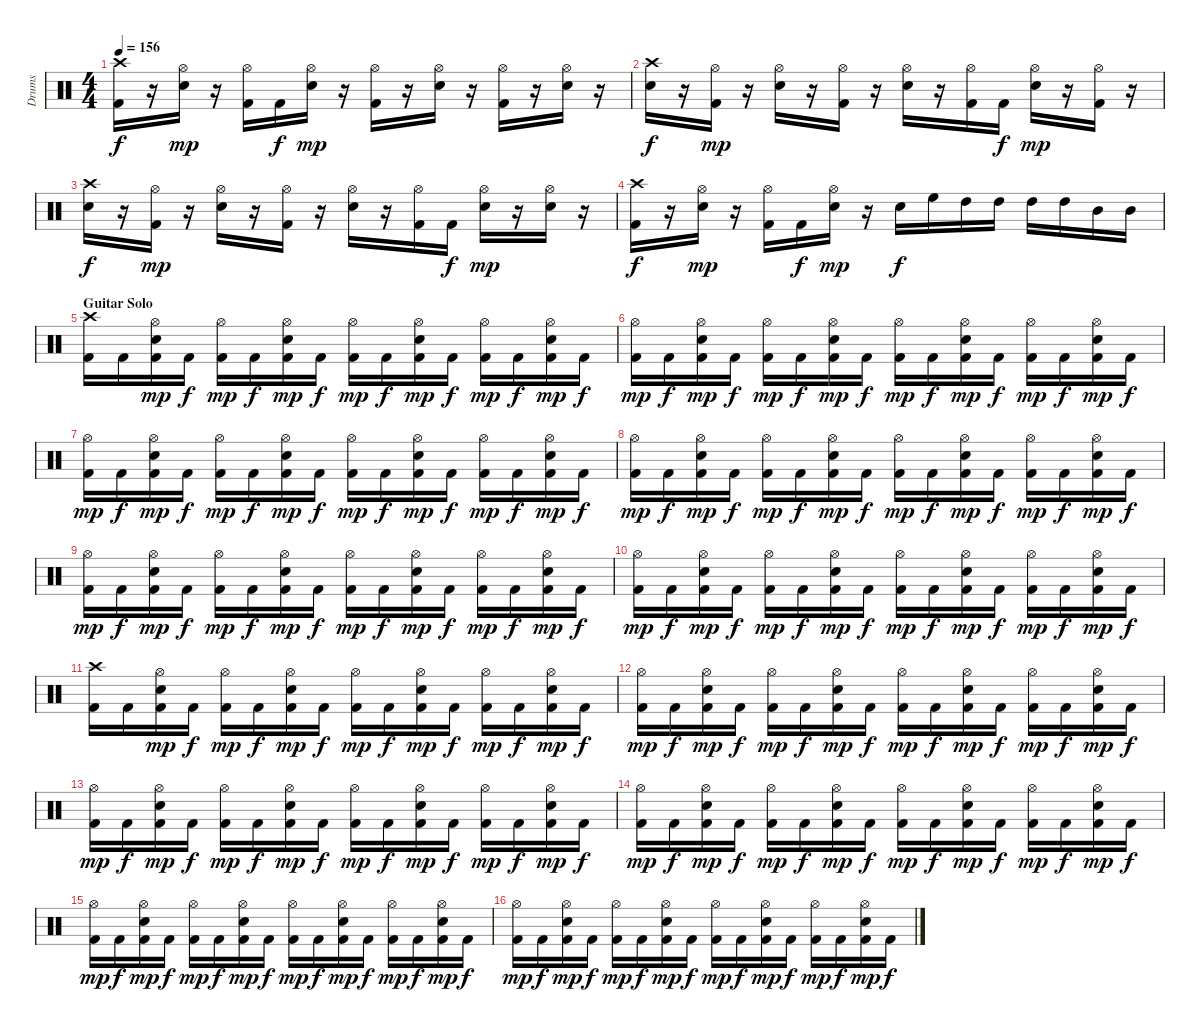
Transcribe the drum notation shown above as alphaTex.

\track ("Drums" "Drums") {instrument percussion}
\staff {score}
\articulation defaults
\ts (4 4)
\tempo 156
\clef neutral
\ks c
("Kick (hit) 2" "Crash high (hit)").16{dy f} r.16 ("Snare (hit) 2" "Hi-Hat (open)").16{dy mp} r.16 ("Kick (hit) 2" "Hi-Hat (open)").16 "Kick (hit) 2".16{dy f} ("Snare (hit) 2" "Hi-Hat (open)").16{dy mp} r.16 ("Kick (hit) 2" "Hi-Hat (open)").16 r.16 ("Snare (hit) 2" "Hi-Hat (open)").16 r.16 ("Kick (hit) 2" "Hi-Hat (open)").16 r.16 ("Snare (hit) 2" "Hi-Hat (open)").16 r.16 |
("Snare (hit) 2" "Crash high (hit)").16{dy f} r.16 ("Kick (hit) 2" "Hi-Hat (open)").16{dy mp} r.16 ("Snare (hit) 2" "Hi-Hat (open)").16 r.16 ("Kick (hit) 2" "Hi-Hat (open)").16 r.16 ("Snare (hit) 2" "Hi-Hat (open)").16 r.16 ("Kick (hit) 2" "Hi-Hat (open)").16 "Kick (hit) 2".16{dy f} ("Snare (hit) 2" "Hi-Hat (open)").16{dy mp} r.16 ("Kick (hit) 2" "Hi-Hat (open)").16 r.16 |
("Snare (hit) 2" "Crash high (hit)").16{dy f} r.16 ("Kick (hit) 2" "Hi-Hat (open)").16{dy mp} r.16 ("Snare (hit) 2" "Hi-Hat (open)").16 r.16 ("Kick (hit) 2" "Hi-Hat (open)").16 r.16 ("Snare (hit) 2" "Hi-Hat (open)").16 r.16 ("Kick (hit) 2" "Hi-Hat (open)").16 "Kick (hit) 2".16{dy f} ("Snare (hit) 2" "Hi-Hat (open)").16{dy mp} r.16 ("Snare (hit) 2" "Hi-Hat (open)").16 r.16 |
("Kick (hit) 2" "Crash high (hit)").16{dy f} r.16 ("Snare (hit) 2" "Hi-Hat (open)").16{dy mp} r.16 ("Kick (hit) 2" "Hi-Hat (open)").16 "Kick (hit) 2".16{dy f} ("Snare (hit) 2" "Hi-Hat (open)").16{dy mp} r.16 "Snare (hit) 2".16{dy f} "High Floor Tom (hit)".16 "High Tom (hit)".16 "High Tom (hit)".16 "High Tom (hit)".16 "High Tom (hit)".16 "Mid Tom (hit)".16 "Mid Tom (hit)".16 |
\section ("" "Guitar Solo")
("Kick (hit) 2" "Crash high (hit)").16 "Kick (hit) 2".16 ("Snare (hit) 2" "Kick (hit) 2" "Hi-Hat (open)").16{dy mp} "Kick (hit) 2".16{dy f} ("Kick (hit) 2" "Hi-Hat (open)").16{dy mp} "Kick (hit) 2".16{dy f} ("Snare (hit) 2" "Kick (hit) 2" "Hi-Hat (open)").16{dy mp} "Kick (hit) 2".16{dy f} ("Kick (hit) 2" "Hi-Hat (open)").16{dy mp} "Kick (hit) 2".16{dy f} ("Snare (hit) 2" "Kick (hit) 2" "Hi-Hat (open)").16{dy mp} "Kick (hit) 2".16{dy f} ("Kick (hit) 2" "Hi-Hat (open)").16{dy mp} "Kick (hit) 2".16{dy f} ("Snare (hit) 2" "Kick (hit) 2" "Hi-Hat (open)").16{dy mp} "Kick (hit) 2".16{dy f} |
("Kick (hit) 2" "Hi-Hat (open)").16{dy mp} "Kick (hit) 2".16{dy f} ("Snare (hit) 2" "Kick (hit) 2" "Hi-Hat (open)").16{dy mp} "Kick (hit) 2".16{dy f} ("Kick (hit) 2" "Hi-Hat (open)").16{dy mp} "Kick (hit) 2".16{dy f} ("Snare (hit) 2" "Kick (hit) 2" "Hi-Hat (open)").16{dy mp} "Kick (hit) 2".16{dy f} ("Kick (hit) 2" "Hi-Hat (open)").16{dy mp} "Kick (hit) 2".16{dy f} ("Snare (hit) 2" "Kick (hit) 2" "Hi-Hat (open)").16{dy mp} "Kick (hit) 2".16{dy f} ("Kick (hit) 2" "Hi-Hat (open)").16{dy mp} "Kick (hit) 2".16{dy f} ("Snare (hit) 2" "Kick (hit) 2" "Hi-Hat (open)").16{dy mp} "Kick (hit) 2".16{dy f} |
("Kick (hit) 2" "Hi-Hat (open)").16{dy mp} "Kick (hit) 2".16{dy f} ("Snare (hit) 2" "Kick (hit) 2" "Hi-Hat (open)").16{dy mp} "Kick (hit) 2".16{dy f} ("Kick (hit) 2" "Hi-Hat (open)").16{dy mp} "Kick (hit) 2".16{dy f} ("Snare (hit) 2" "Kick (hit) 2" "Hi-Hat (open)").16{dy mp} "Kick (hit) 2".16{dy f} ("Kick (hit) 2" "Hi-Hat (open)").16{dy mp} "Kick (hit) 2".16{dy f} ("Snare (hit) 2" "Kick (hit) 2" "Hi-Hat (open)").16{dy mp} "Kick (hit) 2".16{dy f} ("Kick (hit) 2" "Hi-Hat (open)").16{dy mp} "Kick (hit) 2".16{dy f} ("Snare (hit) 2" "Kick (hit) 2" "Hi-Hat (open)").16{dy mp} "Kick (hit) 2".16{dy f} |
("Kick (hit) 2" "Hi-Hat (open)").16{dy mp} "Kick (hit) 2".16{dy f} ("Snare (hit) 2" "Kick (hit) 2" "Hi-Hat (open)").16{dy mp} "Kick (hit) 2".16{dy f} ("Kick (hit) 2" "Hi-Hat (open)").16{dy mp} "Kick (hit) 2".16{dy f} ("Snare (hit) 2" "Kick (hit) 2" "Hi-Hat (open)").16{dy mp} "Kick (hit) 2".16{dy f} ("Kick (hit) 2" "Hi-Hat (open)").16{dy mp} "Kick (hit) 2".16{dy f} ("Snare (hit) 2" "Kick (hit) 2" "Hi-Hat (open)").16{dy mp} "Kick (hit) 2".16{dy f} ("Kick (hit) 2" "Hi-Hat (open)").16{dy mp} "Kick (hit) 2".16{dy f} ("Snare (hit) 2" "Kick (hit) 2" "Hi-Hat (open)").16{dy mp} "Kick (hit) 2".16{dy f} |
("Kick (hit) 2" "Hi-Hat (open)").16{dy mp} "Kick (hit) 2".16{dy f} ("Snare (hit) 2" "Kick (hit) 2" "Hi-Hat (open)").16{dy mp} "Kick (hit) 2".16{dy f} ("Kick (hit) 2" "Hi-Hat (open)").16{dy mp} "Kick (hit) 2".16{dy f} ("Snare (hit) 2" "Kick (hit) 2" "Hi-Hat (open)").16{dy mp} "Kick (hit) 2".16{dy f} ("Kick (hit) 2" "Hi-Hat (open)").16{dy mp} "Kick (hit) 2".16{dy f} ("Snare (hit) 2" "Kick (hit) 2" "Hi-Hat (open)").16{dy mp} "Kick (hit) 2".16{dy f} ("Kick (hit) 2" "Hi-Hat (open)").16{dy mp} "Kick (hit) 2".16{dy f} ("Snare (hit) 2" "Kick (hit) 2" "Hi-Hat (open)").16{dy mp} "Kick (hit) 2".16{dy f} |
("Kick (hit) 2" "Hi-Hat (open)").16{dy mp} "Kick (hit) 2".16{dy f} ("Snare (hit) 2" "Kick (hit) 2" "Hi-Hat (open)").16{dy mp} "Kick (hit) 2".16{dy f} ("Kick (hit) 2" "Hi-Hat (open)").16{dy mp} "Kick (hit) 2".16{dy f} ("Snare (hit) 2" "Kick (hit) 2" "Hi-Hat (open)").16{dy mp} "Kick (hit) 2".16{dy f} ("Kick (hit) 2" "Hi-Hat (open)").16{dy mp} "Kick (hit) 2".16{dy f} ("Snare (hit) 2" "Kick (hit) 2" "Hi-Hat (open)").16{dy mp} "Kick (hit) 2".16{dy f} ("Kick (hit) 2" "Hi-Hat (open)").16{dy mp} "Kick (hit) 2".16{dy f} ("Snare (hit) 2" "Kick (hit) 2" "Hi-Hat (open)").16{dy mp} "Kick (hit) 2".16{dy f} |
("Kick (hit) 2" "Crash high (hit)").16 "Kick (hit) 2".16 ("Snare (hit) 2" "Kick (hit) 2" "Hi-Hat (open)").16{dy mp} "Kick (hit) 2".16{dy f} ("Kick (hit) 2" "Hi-Hat (open)").16{dy mp} "Kick (hit) 2".16{dy f} ("Snare (hit) 2" "Kick (hit) 2" "Hi-Hat (open)").16{dy mp} "Kick (hit) 2".16{dy f} ("Kick (hit) 2" "Hi-Hat (open)").16{dy mp} "Kick (hit) 2".16{dy f} ("Snare (hit) 2" "Kick (hit) 2" "Hi-Hat (open)").16{dy mp} "Kick (hit) 2".16{dy f} ("Kick (hit) 2" "Hi-Hat (open)").16{dy mp} "Kick (hit) 2".16{dy f} ("Snare (hit) 2" "Kick (hit) 2" "Hi-Hat (open)").16{dy mp} "Kick (hit) 2".16{dy f} |
("Kick (hit) 2" "Hi-Hat (open)").16{dy mp} "Kick (hit) 2".16{dy f} ("Snare (hit) 2" "Kick (hit) 2" "Hi-Hat (open)").16{dy mp} "Kick (hit) 2".16{dy f} ("Kick (hit) 2" "Hi-Hat (open)").16{dy mp} "Kick (hit) 2".16{dy f} ("Snare (hit) 2" "Kick (hit) 2" "Hi-Hat (open)").16{dy mp} "Kick (hit) 2".16{dy f} ("Kick (hit) 2" "Hi-Hat (open)").16{dy mp} "Kick (hit) 2".16{dy f} ("Snare (hit) 2" "Kick (hit) 2" "Hi-Hat (open)").16{dy mp} "Kick (hit) 2".16{dy f} ("Kick (hit) 2" "Hi-Hat (open)").16{dy mp} "Kick (hit) 2".16{dy f} ("Snare (hit) 2" "Kick (hit) 2" "Hi-Hat (open)").16{dy mp} "Kick (hit) 2".16{dy f} |
("Kick (hit) 2" "Hi-Hat (open)").16{dy mp} "Kick (hit) 2".16{dy f} ("Snare (hit) 2" "Kick (hit) 2" "Hi-Hat (open)").16{dy mp} "Kick (hit) 2".16{dy f} ("Kick (hit) 2" "Hi-Hat (open)").16{dy mp} "Kick (hit) 2".16{dy f} ("Snare (hit) 2" "Kick (hit) 2" "Hi-Hat (open)").16{dy mp} "Kick (hit) 2".16{dy f} ("Kick (hit) 2" "Hi-Hat (open)").16{dy mp} "Kick (hit) 2".16{dy f} ("Snare (hit) 2" "Kick (hit) 2" "Hi-Hat (open)").16{dy mp} "Kick (hit) 2".16{dy f} ("Kick (hit) 2" "Hi-Hat (open)").16{dy mp} "Kick (hit) 2".16{dy f} ("Snare (hit) 2" "Kick (hit) 2" "Hi-Hat (open)").16{dy mp} "Kick (hit) 2".16{dy f} |
("Kick (hit) 2" "Hi-Hat (open)").16{dy mp} "Kick (hit) 2".16{dy f} ("Snare (hit) 2" "Kick (hit) 2" "Hi-Hat (open)").16{dy mp} "Kick (hit) 2".16{dy f} ("Kick (hit) 2" "Hi-Hat (open)").16{dy mp} "Kick (hit) 2".16{dy f} ("Snare (hit) 2" "Kick (hit) 2" "Hi-Hat (open)").16{dy mp} "Kick (hit) 2".16{dy f} ("Kick (hit) 2" "Hi-Hat (open)").16{dy mp} "Kick (hit) 2".16{dy f} ("Snare (hit) 2" "Kick (hit) 2" "Hi-Hat (open)").16{dy mp} "Kick (hit) 2".16{dy f} ("Kick (hit) 2" "Hi-Hat (open)").16{dy mp} "Kick (hit) 2".16{dy f} ("Snare (hit) 2" "Kick (hit) 2" "Hi-Hat (open)").16{dy mp} "Kick (hit) 2".16{dy f} |
("Kick (hit) 2" "Hi-Hat (open)").16{dy mp} "Kick (hit) 2".16{dy f} ("Snare (hit) 2" "Kick (hit) 2" "Hi-Hat (open)").16{dy mp} "Kick (hit) 2".16{dy f} ("Kick (hit) 2" "Hi-Hat (open)").16{dy mp} "Kick (hit) 2".16{dy f} ("Snare (hit) 2" "Kick (hit) 2" "Hi-Hat (open)").16{dy mp} "Kick (hit) 2".16{dy f} ("Kick (hit) 2" "Hi-Hat (open)").16{dy mp} "Kick (hit) 2".16{dy f} ("Snare (hit) 2" "Kick (hit) 2" "Hi-Hat (open)").16{dy mp} "Kick (hit) 2".16{dy f} ("Kick (hit) 2" "Hi-Hat (open)").16{dy mp} "Kick (hit) 2".16{dy f} ("Snare (hit) 2" "Kick (hit) 2" "Hi-Hat (open)").16{dy mp} "Kick (hit) 2".16{dy f} |
("Kick (hit) 2" "Hi-Hat (open)").16{dy mp} "Kick (hit) 2".16{dy f} ("Snare (hit) 2" "Kick (hit) 2" "Hi-Hat (open)").16{dy mp} "Kick (hit) 2".16{dy f} ("Kick (hit) 2" "Hi-Hat (open)").16{dy mp} "Kick (hit) 2".16{dy f} ("Snare (hit) 2" "Kick (hit) 2" "Hi-Hat (open)").16{dy mp} "Kick (hit) 2".16{dy f} ("Kick (hit) 2" "Hi-Hat (open)").16{dy mp} "Kick (hit) 2".16{dy f} ("Snare (hit) 2" "Kick (hit) 2" "Hi-Hat (open)").16{dy mp} "Kick (hit) 2".16{dy f} ("Kick (hit) 2" "Hi-Hat (open)").16{dy mp} "Kick (hit) 2".16{dy f} ("Snare (hit) 2" "Kick (hit) 2" "Hi-Hat (open)").16{dy mp} "Kick (hit) 2".16{dy f}
